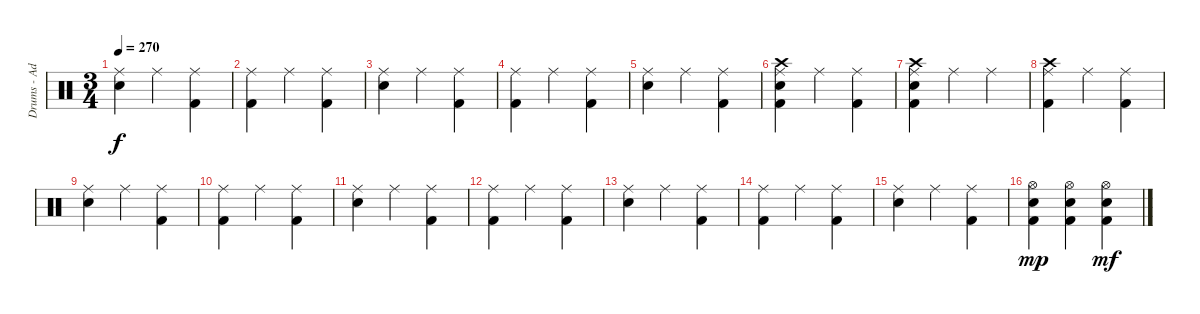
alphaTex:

\track ("Drums - Adam" "Drums - Ad") {instrument percussion}
\staff {score}
\articulation defaults
\ts (3 4)
\tempo 270
\clef neutral
\ks c
("Ride (middle)" "Electric Snare (hit)").4{dy f} "Ride (middle)".4 ("Ride (middle)" "Kick (hit) 2").4 |
("Ride (middle)" "Kick (hit) 2").4 "Ride (middle)".4 ("Ride (middle)" "Kick (hit) 2").4 |
("Ride (middle)" "Electric Snare (hit)").4 "Ride (middle)".4 ("Ride (middle)" "Kick (hit) 2").4 |
("Ride (middle)" "Kick (hit) 2").4 "Ride (middle)".4 ("Ride (middle)" "Kick (hit) 2").4 |
("Ride (middle)" "Electric Snare (hit)").4 "Ride (middle)".4 ("Ride (middle)" "Kick (hit) 2").4 |
("Ride (middle)" "Kick (hit) 2" "Electric Snare (hit)" "Crash high (hit)").4 "Ride (middle)".4 ("Ride (middle)" "Kick (hit) 2").4 |
("Ride (middle)" "Kick (hit) 2" "Electric Snare (hit)" "Crash high (hit)").4 "Ride (middle)".4 "Ride (middle)".4 |
("Ride (middle)" "Kick (hit) 2" "Crash high (hit)").4 "Ride (middle)".4 ("Ride (middle)" "Kick (hit) 2").4 |
("Ride (middle)" "Electric Snare (hit)").4 "Ride (middle)".4 ("Ride (middle)" "Kick (hit) 2").4 |
("Ride (middle)" "Kick (hit) 2").4 "Ride (middle)".4 ("Ride (middle)" "Kick (hit) 2").4 |
("Ride (middle)" "Electric Snare (hit)").4 "Ride (middle)".4 ("Ride (middle)" "Kick (hit) 2").4 |
("Ride (middle)" "Kick (hit) 2").4 "Ride (middle)".4 ("Ride (middle)" "Kick (hit) 2").4 |
("Ride (middle)" "Electric Snare (hit)").4 "Ride (middle)".4 ("Ride (middle)" "Kick (hit) 2").4 |
("Ride (middle)" "Kick (hit) 2").4 "Ride (middle)".4 ("Ride (middle)" "Kick (hit) 2").4 |
("Ride (middle)" "Electric Snare (hit)").4 "Ride (middle)".4 ("Ride (middle)" "Kick (hit) 2").4 |
("Hi-Hat (open)" "Kick (hit) 2" "Electric Snare (hit)").4{dy mp} ("Hi-Hat (open)" "Kick (hit) 2" "Electric Snare (hit)").4 ("Hi-Hat (open)" "Kick (hit) 2" "Electric Snare (hit)").4{dy mf}
